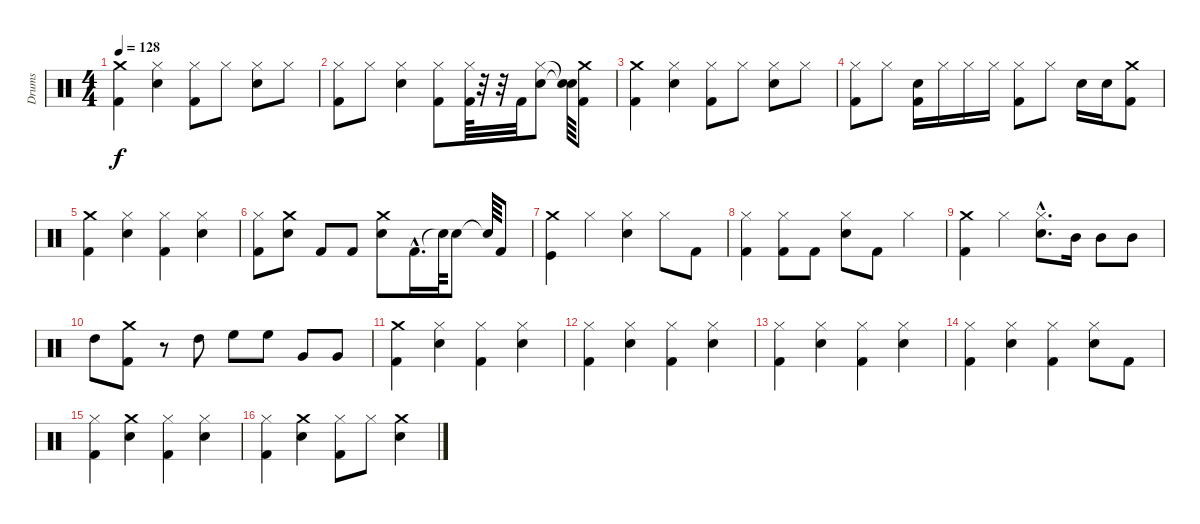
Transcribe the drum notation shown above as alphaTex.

\track ("Drums" "Drums") {instrument percussion}
\staff {score}
\articulation defaults
\ts (4 4)
\tempo 128
\clef neutral
\ks c
("Kick (hit) 2" "Crash medium (hit)").4{dy f} ("Hi-Hat (closed)" "Snare (hit) 2").4 ("Hi-Hat (closed)" "Kick (hit) 2").8 "Hi-Hat (closed)".8 ("Hi-Hat (closed)" "Snare (hit) 2").8 "Hi-Hat (closed)".8 |
("Kick (hit) 2" "Hi-Hat (closed)").8 "Hi-Hat (closed)".8 ("Hi-Hat (closed)" "Snare (hit) 2").4 ("Kick (hit) 2" "Hi-Hat (closed)").8 ("Kick (hit) 2" "Hi-Hat (closed)").64 r.32 r.32 "Kick (hit) 2".32 ("Snare (hit) 2" "Hi-Hat (closed)").8 ("Snare (hit)"{t} "Snare (hit)"{t}).64 ("Kick (hit) 2" "Crash medium (hit)").8 |
("Kick (hit) 2" "Crash medium (hit)").4 ("Snare (hit) 2" "Hi-Hat (closed)").4 ("Kick (hit) 2" "Hi-Hat (closed)").8 "Hi-Hat (closed)".8 ("Snare (hit) 2" "Hi-Hat (closed)").8 "Hi-Hat (closed)".8 |
("Hi-Hat (closed)" "Kick (hit) 2").8 "Hi-Hat (closed)".8 ("Snare (hit) 2" "Kick (hit) 2").16 "Hi-Hat (closed)".16 "Hi-Hat (closed)".16 "Hi-Hat (closed)".16 ("Hi-Hat (closed)" "Kick (hit) 2").8 "Hi-Hat (closed)".8 "Snare (hit) 2".16 "Snare (hit) 2".16 ("Crash medium (hit)" "Kick (hit) 2").8 |
("Kick (hit) 2" "Crash medium (hit)").4 ("Hi-Hat (closed)" "Snare (hit) 2").4 ("Hi-Hat (closed)" "Kick (hit) 2").4 ("Snare (hit) 2" "Hi-Hat (closed)").4 |
("Hi-Hat (closed)" "Kick (hit) 2").8 ("Snare (hit) 2" "Crash medium (hit)").8 "Kick (hit) 2".8 "Kick (hit) 2".8 ("Crash medium (hit)" "Snare (hit) 2").8 "Kick (hit) 2"{hac}.16{d} "Snare (hit)"{t}.64 "Snare (hit) 2".8 "Snare (hit)"{t}.64 "Kick (hit) 2".8 |
("Kick (hit)" "Crash medium (hit)").4 "Hi-Hat (closed)".4 ("Snare (hit) 2" "Hi-Hat (closed)").4 "Hi-Hat (closed)".8 "Kick (hit) 2".8 |
("Hi-Hat (closed)" "Kick (hit) 2").4 ("Hi-Hat (closed)" "Kick (hit) 2").8 "Kick (hit) 2".8 ("Snare (hit) 2" "Hi-Hat (closed)").8 "Kick (hit) 2".8 "Hi-Hat (closed)".4 |
("Kick (hit) 2" "Crash medium (hit)").4 "Hi-Hat (closed)".4 ("Snare (hit) 2"{hac} "Hi-Hat (closed)"{hac}).8{d} "Mid Tom (hit)".16 "Mid Tom (hit)".8 "Mid Tom (hit)".8 |
"High Tom (hit)".8 ("Crash medium (hit)" "Kick (hit) 2").8 r.8 "High Tom (hit)".8 "High Floor Tom (hit)".8 "High Floor Tom (hit)".8 "Very Low Tom (hit)".8 "Very Low Tom (hit)".8 |
("Kick (hit) 2" "Crash medium (hit)").4 ("Hi-Hat (closed)" "Snare (hit) 2").4 ("Hi-Hat (closed)" "Kick (hit) 2").4 ("Snare (hit) 2" "Hi-Hat (closed)").4 |
("Hi-Hat (closed)" "Kick (hit) 2").4 ("Snare (hit) 2" "Hi-Hat (closed)").4 ("Kick (hit) 2" "Hi-Hat (closed)").4 ("Snare (hit) 2" "Hi-Hat (closed)").4 |
("Hi-Hat (closed)" "Kick (hit) 2").4 ("Snare (hit) 2" "Hi-Hat (closed)").4 ("Kick (hit) 2" "Hi-Hat (closed)").4 ("Snare (hit) 2" "Hi-Hat (closed)").4 |
("Kick (hit) 2" "Hi-Hat (closed)").4 ("Snare (hit) 2" "Hi-Hat (closed)").4 ("Kick (hit) 2" "Hi-Hat (closed)").4 ("Snare (hit) 2" "Hi-Hat (closed)").8 "Kick (hit) 2".8 |
("Kick (hit) 2" "Hi-Hat (closed)").4 ("Crash medium (hit)" "Snare (hit) 2").4 ("Kick (hit) 2" "Hi-Hat (closed)").4 ("Snare (hit) 2" "Hi-Hat (closed)").4 |
("Hi-Hat (closed)" "Kick (hit) 2").4 ("Crash medium (hit)" "Snare (hit) 2").4 ("Hi-Hat (closed)" "Kick (hit) 2").8 "Hi-Hat (closed)".8 ("Crash medium (hit)" "Snare (hit) 2").4
